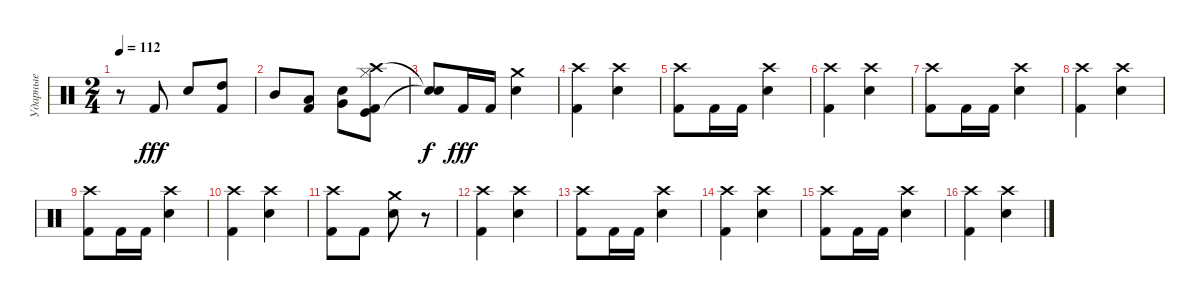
\track ("Ударные" "Ударные") {instrument percussion}
\staff {score}
\articulation defaults
\ts (2 4)
\tempo 112
\clef neutral
\ks c
r.8{dy fff} "Kick (hit) 2".8 "Electric Snare (hit)".8 ("Kick (hit) 2" "High Tom (hit)").8 |
"Mid Tom (hit)".8 ("Kick (hit) 2" "Low Tom (hit)").8 ("Electric Snare (hit)" "Very Low Tom (hit)").8 ("Kick (hit)" "Crash high (hit)" "Hi-Hat (closed)" "Kick (hit) 2").8 |
("Snare (hit)"{t} "Snare (hit)"{t}).8{dy f} "Kick (hit) 2".16{dy fff} "Kick (hit) 2".16 ("Electric Snare (hit)" "Crash medium (hit)").4 |
("Kick (hit) 2" "Crash high (hit)").4 ("Electric Snare (hit)" "Crash high (hit)").4 |
("Kick (hit) 2" "Crash high (hit)").8 "Kick (hit) 2".16 "Kick (hit) 2".16 ("Electric Snare (hit)" "Crash high (hit)").4 |
("Kick (hit) 2" "Crash high (hit)").4 ("Electric Snare (hit)" "Crash high (hit)").4 |
("Kick (hit) 2" "Crash high (hit)").8 "Kick (hit) 2".16 "Kick (hit) 2".16 ("Electric Snare (hit)" "Crash high (hit)").4 |
("Kick (hit) 2" "Crash high (hit)").4 ("Electric Snare (hit)" "Crash high (hit)").4 |
("Kick (hit) 2" "Crash high (hit)").8 "Kick (hit) 2".16 "Kick (hit) 2".16 ("Electric Snare (hit)" "Crash high (hit)").4 |
("Kick (hit) 2" "Crash high (hit)").4 ("Electric Snare (hit)" "Crash high (hit)").4 |
("Crash high (hit)" "Kick (hit) 2").8 "Kick (hit) 2".8 ("Electric Snare (hit)" "Crash medium (hit)").8 r.8 |
("Kick (hit) 2" "Crash high (hit)").4 ("Electric Snare (hit)" "Crash high (hit)").4 |
("Kick (hit) 2" "Crash high (hit)").8 "Kick (hit) 2".16 "Kick (hit) 2".16 ("Electric Snare (hit)" "Crash high (hit)").4 |
("Kick (hit) 2" "Crash high (hit)").4 ("Electric Snare (hit)" "Crash high (hit)").4 |
("Crash high (hit)" "Kick (hit) 2").8 "Kick (hit) 2".16 "Kick (hit) 2".16 ("Electric Snare (hit)" "Crash high (hit)").4 |
("Kick (hit) 2" "Crash high (hit)").4 ("Electric Snare (hit)" "Crash high (hit)").4
